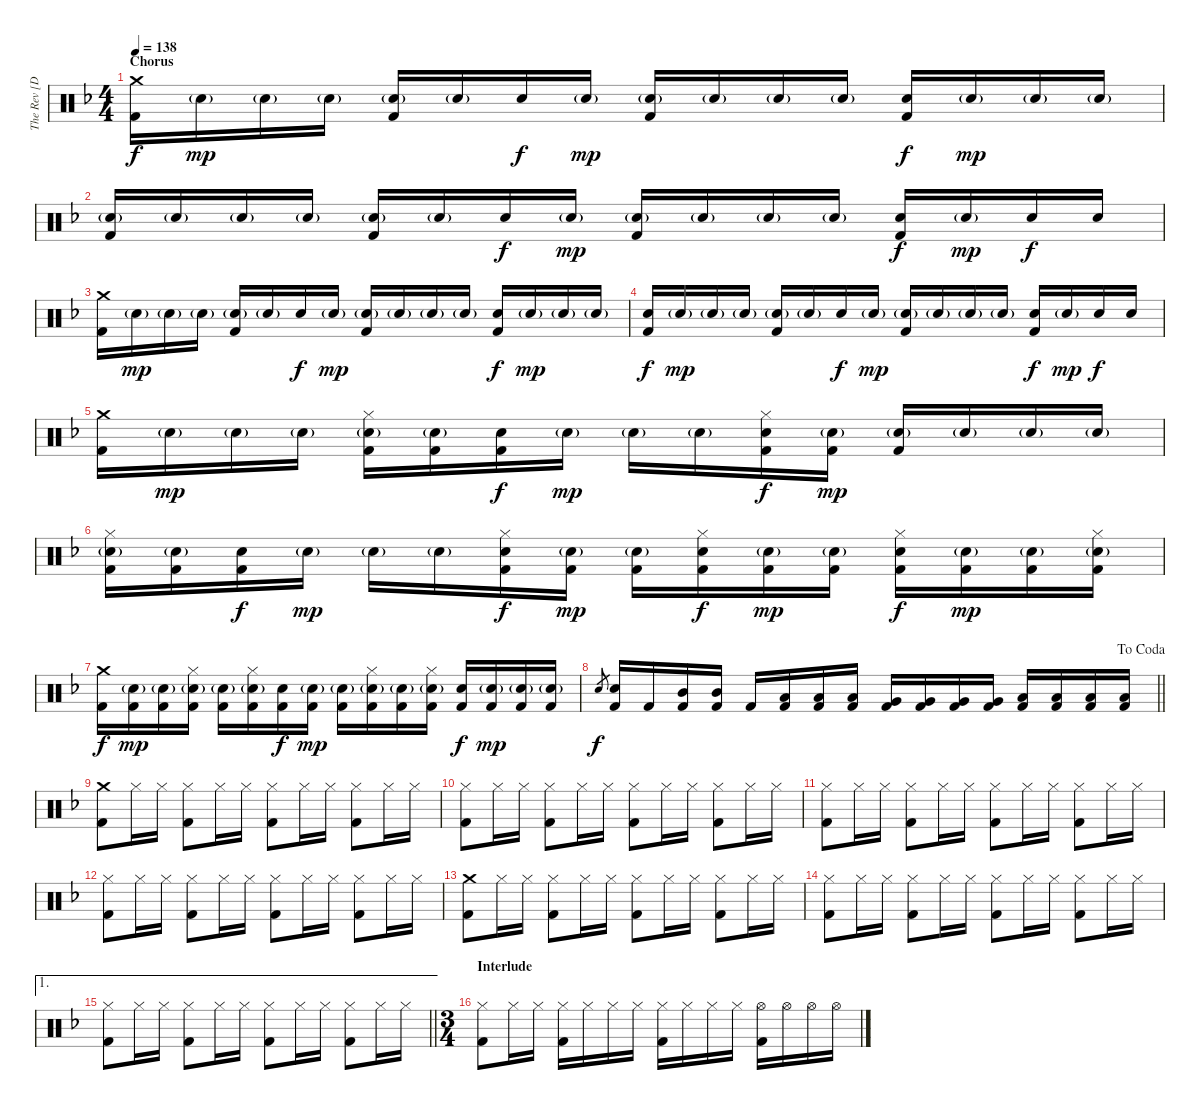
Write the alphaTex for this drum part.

\track ("The Rev [Drum]" "The Rev [D") {instrument percussion}
\staff {score}
\articulation defaults
\ts (4 4)
\section ("" "Chorus")
\tempo 138
\clef neutral
\ks f
("Crash medium (hit)" "Kick (hit) 2").16{dy f} "Electric Snare (hit)"{g}.16{dy mp} "Electric Snare (hit)"{g}.16 "Electric Snare (hit)"{g}.16 ("Electric Snare (hit)"{g} "Kick (hit) 2").16 "Electric Snare (hit)"{g}.16 "Electric Snare (hit)".16{dy f} "Electric Snare (hit)"{g}.16{dy mp} ("Electric Snare (hit)"{g} "Kick (hit) 2").16 "Electric Snare (hit)"{g}.16 "Electric Snare (hit)"{g}.16 "Electric Snare (hit)"{g}.16 ("Electric Snare (hit)" "Kick (hit) 2").16{dy f} "Electric Snare (hit)"{g}.16{dy mp} "Electric Snare (hit)"{g}.16 "Electric Snare (hit)"{g}.16 |
("Electric Snare (hit)"{g} "Kick (hit) 2").16 "Electric Snare (hit)"{g}.16 "Electric Snare (hit)"{g}.16 "Electric Snare (hit)"{g}.16 ("Electric Snare (hit)"{g} "Kick (hit) 2").16 "Electric Snare (hit)"{g}.16 "Electric Snare (hit)".16{dy f} "Electric Snare (hit)"{g}.16{dy mp} ("Electric Snare (hit)"{g} "Kick (hit) 2").16 "Electric Snare (hit)"{g}.16 "Electric Snare (hit)"{g}.16 "Electric Snare (hit)"{g}.16 ("Electric Snare (hit)" "Kick (hit) 2").16{dy f} "Electric Snare (hit)"{g}.16{dy mp} "Electric Snare (hit)".16{dy f} "Electric Snare (hit)".16 |
("Crash medium (hit)" "Kick (hit) 2").16 "Electric Snare (hit)"{g}.16{dy mp} "Electric Snare (hit)"{g}.16 "Electric Snare (hit)"{g}.16 ("Electric Snare (hit)"{g} "Kick (hit) 2").16 "Electric Snare (hit)"{g}.16 "Electric Snare (hit)".16{dy f} "Electric Snare (hit)"{g}.16{dy mp} ("Electric Snare (hit)"{g} "Kick (hit) 2").16 "Electric Snare (hit)"{g}.16 "Electric Snare (hit)"{g}.16 "Electric Snare (hit)"{g}.16 ("Electric Snare (hit)" "Kick (hit) 2").16{dy f} "Electric Snare (hit)"{g}.16{dy mp} "Electric Snare (hit)"{g}.16 "Electric Snare (hit)"{g}.16 |
("Electric Snare (hit)" "Kick (hit) 2").16{dy f} "Electric Snare (hit)"{g}.16{dy mp} "Electric Snare (hit)"{g}.16 "Electric Snare (hit)"{g}.16 ("Electric Snare (hit)"{g} "Kick (hit) 2").16 "Electric Snare (hit)"{g}.16 "Electric Snare (hit)".16{dy f} "Electric Snare (hit)"{g}.16{dy mp} ("Electric Snare (hit)"{g} "Kick (hit) 2").16 "Electric Snare (hit)"{g}.16 "Electric Snare (hit)"{g}.16 "Electric Snare (hit)"{g}.16 ("Electric Snare (hit)" "Kick (hit) 2").16{dy f} "Electric Snare (hit)"{g}.16{dy mp} "Electric Snare (hit)".16{dy f} "Electric Snare (hit)".16 |
("Crash medium (hit)" "Kick (hit) 2").16 "Electric Snare (hit)"{g}.16{dy mp} "Electric Snare (hit)"{g}.16 "Electric Snare (hit)"{g}.16 ("Hi-Hat (closed)" "Electric Snare (hit)"{g} "Kick (hit) 2").16 ("Electric Snare (hit)"{g} "Kick (hit) 2").16 ("Electric Snare (hit)" "Kick (hit) 2").16{dy f} "Electric Snare (hit)"{g}.16{dy mp} "Electric Snare (hit)"{g}.16 "Electric Snare (hit)"{g}.16 ("Hi-Hat (closed)" "Electric Snare (hit)" "Kick (hit) 2").16{dy f} ("Electric Snare (hit)"{g} "Kick (hit) 2").16{dy mp} ("Electric Snare (hit)"{g} "Kick (hit) 2").16 "Electric Snare (hit)"{g}.16 "Electric Snare (hit)"{g}.16 "Electric Snare (hit)"{g}.16 |
("Hi-Hat (closed)" "Electric Snare (hit)"{g} "Kick (hit) 2").16 ("Electric Snare (hit)"{g} "Kick (hit) 2").16 ("Electric Snare (hit)" "Kick (hit) 2").16{dy f} "Electric Snare (hit)"{g}.16{dy mp} "Electric Snare (hit)"{g}.16 "Electric Snare (hit)"{g}.16 ("Hi-Hat (closed)" "Electric Snare (hit)" "Kick (hit) 2").16{dy f} ("Electric Snare (hit)"{g} "Kick (hit) 2").16{dy mp} ("Electric Snare (hit)"{g} "Kick (hit) 2").16 ("Hi-Hat (closed)" "Electric Snare (hit)" "Kick (hit) 2").16{dy f} ("Electric Snare (hit)"{g} "Kick (hit) 2").16{dy mp} ("Electric Snare (hit)"{g} "Kick (hit) 2").16 ("Hi-Hat (closed)" "Electric Snare (hit)" "Kick (hit) 2").16{dy f} ("Electric Snare (hit)"{g} "Kick (hit) 2").16{dy mp} ("Electric Snare (hit)"{g} "Kick (hit) 2").16 ("Hi-Hat (closed)" "Electric Snare (hit)"{g} "Kick (hit) 2").16 |
("Crash medium (hit)" "Kick (hit) 2").16{dy f} ("Electric Snare (hit)"{g} "Kick (hit) 2").16{dy mp} ("Electric Snare (hit)"{g} "Kick (hit) 2").16 ("Hi-Hat (closed)" "Electric Snare (hit)"{g} "Kick (hit) 2").16 ("Electric Snare (hit)"{g} "Kick (hit) 2").16 ("Hi-Hat (closed)" "Electric Snare (hit)"{g} "Kick (hit) 2").16 ("Electric Snare (hit)" "Kick (hit) 2").16{dy f} ("Electric Snare (hit)"{g} "Kick (hit) 2").16{dy mp} ("Electric Snare (hit)"{g} "Kick (hit) 2").16 ("Hi-Hat (closed)" "Electric Snare (hit)"{g} "Kick (hit) 2").16 ("Electric Snare (hit)"{g} "Kick (hit) 2").16 ("Hi-Hat (closed)" "Electric Snare (hit)"{g} "Kick (hit) 2").16 ("Electric Snare (hit)" "Kick (hit) 2").16{dy f} ("Electric Snare (hit)"{g} "Kick (hit) 2").16{dy mp} ("Electric Snare (hit)"{g} "Kick (hit) 2").16 ("Electric Snare (hit)"{g} "Kick (hit) 2").16 |
\jump dacoda
\barLineRight lightlight "Electric Snare (hit)".8{gr dy f}
("Electric Snare (hit)" "Kick (hit) 2").16 "Kick (hit) 2".16 ("Mid Tom (hit)" "Kick (hit) 2").16 ("Mid Tom (hit)" "Kick (hit) 2").16 "Kick (hit) 2".16 ("Low Tom (hit)" "Kick (hit) 2").16 ("Low Tom (hit)" "Kick (hit) 2").16 ("Low Tom (hit)" "Kick (hit) 2").16 ("Very Low Tom (hit)" "Kick (hit) 2").16 ("Very Low Tom (hit)" "Kick (hit) 2").16 ("Very Low Tom (hit)" "Kick (hit) 2").16 ("Very Low Tom (hit)" "Kick (hit) 2").16 ("Low Floor Tom (hit)" "Kick (hit) 2").16 ("Low Floor Tom (hit)" "Kick (hit) 2").16 ("Low Floor Tom (hit)" "Kick (hit) 2").16 ("Low Floor Tom (hit)" "Kick (hit) 2").16 |
("Crash medium (hit)" "Kick (hit) 2").8 "Hi-Hat (closed)".16 "Hi-Hat (closed)".16 ("Hi-Hat (closed)" "Kick (hit) 2").8 "Hi-Hat (closed)".16 "Hi-Hat (closed)".16 ("Hi-Hat (closed)" "Kick (hit) 2").8 "Hi-Hat (closed)".16 "Hi-Hat (closed)".16 ("Hi-Hat (closed)" "Kick (hit) 2").8 "Hi-Hat (closed)".16 "Hi-Hat (closed)".16 |
("Hi-Hat (closed)" "Kick (hit) 2").8 "Hi-Hat (closed)".16 "Hi-Hat (closed)".16 ("Hi-Hat (closed)" "Kick (hit) 2").8 "Hi-Hat (closed)".16 "Hi-Hat (closed)".16 ("Hi-Hat (closed)" "Kick (hit) 2").8 "Hi-Hat (closed)".16 "Hi-Hat (closed)".16 ("Hi-Hat (closed)" "Kick (hit) 2").8 "Hi-Hat (closed)".16 "Hi-Hat (closed)".16 |
("Hi-Hat (closed)" "Kick (hit) 2").8 "Hi-Hat (closed)".16 "Hi-Hat (closed)".16 ("Hi-Hat (closed)" "Kick (hit) 2").8 "Hi-Hat (closed)".16 "Hi-Hat (closed)".16 ("Hi-Hat (closed)" "Kick (hit) 2").8 "Hi-Hat (closed)".16 "Hi-Hat (closed)".16 ("Hi-Hat (closed)" "Kick (hit) 2").8 "Hi-Hat (closed)".16 "Hi-Hat (closed)".16 |
("Hi-Hat (closed)" "Kick (hit) 2").8 "Hi-Hat (closed)".16 "Hi-Hat (closed)".16 ("Hi-Hat (closed)" "Kick (hit) 2").8 "Hi-Hat (closed)".16 "Hi-Hat (closed)".16 ("Hi-Hat (closed)" "Kick (hit) 2").8 "Hi-Hat (closed)".16 "Hi-Hat (closed)".16 ("Hi-Hat (closed)" "Kick (hit) 2").8 "Hi-Hat (closed)".16 "Hi-Hat (closed)".16 |
("Crash medium (hit)" "Kick (hit) 2").8 "Hi-Hat (closed)".16 "Hi-Hat (closed)".16 ("Hi-Hat (closed)" "Kick (hit) 2").8 "Hi-Hat (closed)".16 "Hi-Hat (closed)".16 ("Hi-Hat (closed)" "Kick (hit) 2").8 "Hi-Hat (closed)".16 "Hi-Hat (closed)".16 ("Hi-Hat (closed)" "Kick (hit) 2").8 "Hi-Hat (closed)".16 "Hi-Hat (closed)".16 |
("Hi-Hat (closed)" "Kick (hit) 2").8 "Hi-Hat (closed)".16 "Hi-Hat (closed)".16 ("Hi-Hat (closed)" "Kick (hit) 2").8 "Hi-Hat (closed)".16 "Hi-Hat (closed)".16 ("Hi-Hat (closed)" "Kick (hit) 2").8 "Hi-Hat (closed)".16 "Hi-Hat (closed)".16 ("Hi-Hat (closed)" "Kick (hit) 2").8 "Hi-Hat (closed)".16 "Hi-Hat (closed)".16 |
\ae 1
\barLineRight lightlight
("Hi-Hat (closed)" "Kick (hit) 2").8 "Hi-Hat (closed)".16 "Hi-Hat (closed)".16 ("Hi-Hat (closed)" "Kick (hit) 2").8 "Hi-Hat (closed)".16 "Hi-Hat (closed)".16 ("Hi-Hat (closed)" "Kick (hit) 2").8 "Hi-Hat (closed)".16 "Hi-Hat (closed)".16 ("Hi-Hat (closed)" "Kick (hit) 2").8 "Hi-Hat (closed)".16 "Hi-Hat (closed)".16 |
\ts (3 4)
\section ("" "Interlude")
("Hi-Hat (closed)" "Kick (hit) 2").8 "Hi-Hat (closed)".16 "Hi-Hat (closed)".16 ("Hi-Hat (closed)" "Kick (hit) 2").16 "Hi-Hat (closed)".16 "Hi-Hat (closed)".16 "Hi-Hat (closed)".16 ("Hi-Hat (closed)" "Kick (hit) 2").16 "Hi-Hat (closed)".16 "Hi-Hat (closed)".16 "Hi-Hat (closed)".16 ("Hi-Hat (open)" "Kick (hit) 2").16 "Hi-Hat (open)".16 "Hi-Hat (open)".16 "Hi-Hat (open)".16
